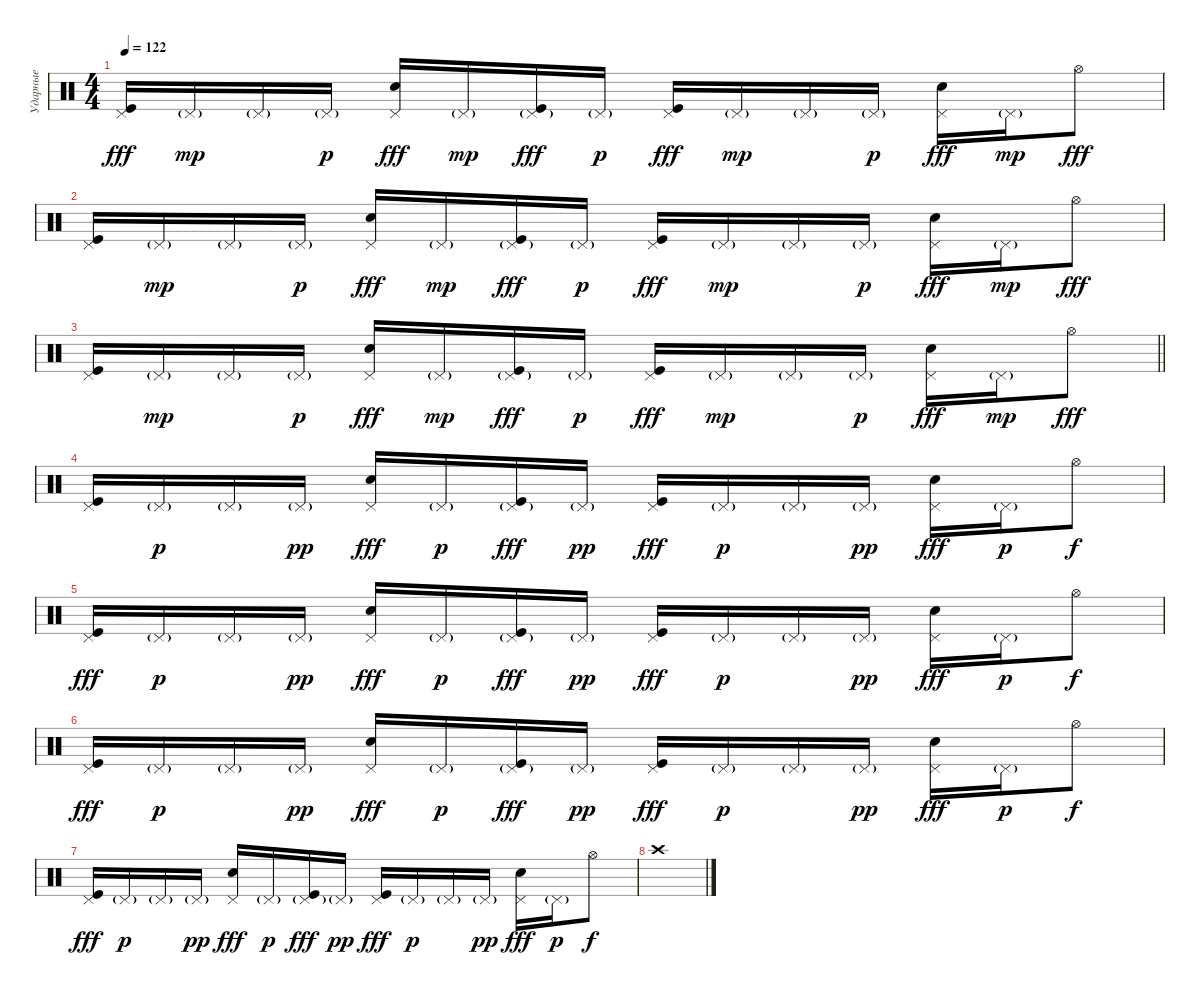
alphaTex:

\track ("Ударные" "Ударные") {instrument percussion}
\staff {score}
\articulation defaults
\ts (4 4)
\tempo 122
\clef neutral
\ks c
("Pedal Hi-Hat (hit)" "Kick (hit)").16{dy fff} "Pedal Hi-Hat (hit)"{g}.16{dy mp} "Pedal Hi-Hat (hit)"{g}.16 "Pedal Hi-Hat (hit)"{g}.16{dy p} ("Pedal Hi-Hat (hit)" "Electric Snare (hit)").16{dy fff} "Pedal Hi-Hat (hit)"{g}.16{dy mp} ("Pedal Hi-Hat (hit)"{g} "Kick (hit)").16{dy fff} "Pedal Hi-Hat (hit)"{g}.16{dy p} ("Pedal Hi-Hat (hit)" "Kick (hit)").16{dy fff} "Pedal Hi-Hat (hit)"{g}.16{dy mp} "Pedal Hi-Hat (hit)"{g}.16 "Pedal Hi-Hat (hit)"{g}.16{dy p} ("Pedal Hi-Hat (hit)" "Electric Snare (hit)").16{dy fff} "Pedal Hi-Hat (hit)"{g}.16{dy mp} "Hi-Hat (open)".8{dy fff} |
("Pedal Hi-Hat (hit)" "Kick (hit)").16 "Pedal Hi-Hat (hit)"{g}.16{dy mp} "Pedal Hi-Hat (hit)"{g}.16 "Pedal Hi-Hat (hit)"{g}.16{dy p} ("Pedal Hi-Hat (hit)" "Electric Snare (hit)").16{dy fff} "Pedal Hi-Hat (hit)"{g}.16{dy mp} ("Pedal Hi-Hat (hit)"{g} "Kick (hit)").16{dy fff} "Pedal Hi-Hat (hit)"{g}.16{dy p} ("Pedal Hi-Hat (hit)" "Kick (hit)").16{dy fff} "Pedal Hi-Hat (hit)"{g}.16{dy mp} "Pedal Hi-Hat (hit)"{g}.16 "Pedal Hi-Hat (hit)"{g}.16{dy p} ("Pedal Hi-Hat (hit)" "Electric Snare (hit)").16{dy fff} "Pedal Hi-Hat (hit)"{g}.16{dy mp} "Hi-Hat (open)".8{dy fff} |
\barLineRight lightlight
("Pedal Hi-Hat (hit)" "Kick (hit)").16 "Pedal Hi-Hat (hit)"{g}.16{dy mp} "Pedal Hi-Hat (hit)"{g}.16 "Pedal Hi-Hat (hit)"{g}.16{dy p} ("Pedal Hi-Hat (hit)" "Electric Snare (hit)").16{dy fff} "Pedal Hi-Hat (hit)"{g}.16{dy mp} ("Pedal Hi-Hat (hit)"{g} "Kick (hit)").16{dy fff} "Pedal Hi-Hat (hit)"{g}.16{dy p} ("Pedal Hi-Hat (hit)" "Kick (hit)").16{dy fff} "Pedal Hi-Hat (hit)"{g}.16{dy mp} "Pedal Hi-Hat (hit)"{g}.16 "Pedal Hi-Hat (hit)"{g}.16{dy p} ("Pedal Hi-Hat (hit)" "Electric Snare (hit)").16{dy fff} "Pedal Hi-Hat (hit)"{g}.16{dy mp} "Hi-Hat (open)".8{dy fff} |
("Pedal Hi-Hat (hit)" "Kick (hit)").16 "Pedal Hi-Hat (hit)"{g}.16{dy p} "Pedal Hi-Hat (hit)"{g}.16 "Pedal Hi-Hat (hit)"{g}.16{dy pp} ("Pedal Hi-Hat (hit)" "Electric Snare (hit)").16{dy fff} "Pedal Hi-Hat (hit)"{g}.16{dy p} ("Pedal Hi-Hat (hit)"{g} "Kick (hit)").16{dy fff} "Pedal Hi-Hat (hit)"{g}.16{dy pp} ("Pedal Hi-Hat (hit)" "Kick (hit)").16{dy fff} "Pedal Hi-Hat (hit)"{g}.16{dy p} "Pedal Hi-Hat (hit)"{g}.16 "Pedal Hi-Hat (hit)"{g}.16{dy pp} ("Pedal Hi-Hat (hit)" "Electric Snare (hit)").16{dy fff} "Pedal Hi-Hat (hit)"{g}.16{dy p} "Hi-Hat (open)".8{dy f} |
("Pedal Hi-Hat (hit)" "Kick (hit)").16{dy fff} "Pedal Hi-Hat (hit)"{g}.16{dy p} "Pedal Hi-Hat (hit)"{g}.16 "Pedal Hi-Hat (hit)"{g}.16{dy pp} ("Pedal Hi-Hat (hit)" "Electric Snare (hit)").16{dy fff} "Pedal Hi-Hat (hit)"{g}.16{dy p} ("Pedal Hi-Hat (hit)"{g} "Kick (hit)").16{dy fff} "Pedal Hi-Hat (hit)"{g}.16{dy pp} ("Pedal Hi-Hat (hit)" "Kick (hit)").16{dy fff} "Pedal Hi-Hat (hit)"{g}.16{dy p} "Pedal Hi-Hat (hit)"{g}.16 "Pedal Hi-Hat (hit)"{g}.16{dy pp} ("Pedal Hi-Hat (hit)" "Electric Snare (hit)").16{dy fff} "Pedal Hi-Hat (hit)"{g}.16{dy p} "Hi-Hat (open)".8{dy f} |
("Pedal Hi-Hat (hit)" "Kick (hit)").16{dy fff} "Pedal Hi-Hat (hit)"{g}.16{dy p} "Pedal Hi-Hat (hit)"{g}.16 "Pedal Hi-Hat (hit)"{g}.16{dy pp} ("Pedal Hi-Hat (hit)" "Electric Snare (hit)").16{dy fff} "Pedal Hi-Hat (hit)"{g}.16{dy p} ("Pedal Hi-Hat (hit)"{g} "Kick (hit)").16{dy fff} "Pedal Hi-Hat (hit)"{g}.16{dy pp} ("Pedal Hi-Hat (hit)" "Kick (hit)").16{dy fff} "Pedal Hi-Hat (hit)"{g}.16{dy p} "Pedal Hi-Hat (hit)"{g}.16 "Pedal Hi-Hat (hit)"{g}.16{dy pp} ("Pedal Hi-Hat (hit)" "Electric Snare (hit)").16{dy fff} "Pedal Hi-Hat (hit)"{g}.16{dy p} "Hi-Hat (open)".8{dy f} |
("Pedal Hi-Hat (hit)" "Kick (hit)").16{dy fff} "Pedal Hi-Hat (hit)"{g}.16{dy p} "Pedal Hi-Hat (hit)"{g}.16 "Pedal Hi-Hat (hit)"{g}.16{dy pp} ("Pedal Hi-Hat (hit)" "Electric Snare (hit)").16{dy fff} "Pedal Hi-Hat (hit)"{g}.16{dy p} ("Pedal Hi-Hat (hit)"{g} "Kick (hit)").16{dy fff} "Pedal Hi-Hat (hit)"{g}.16{dy pp} ("Pedal Hi-Hat (hit)" "Kick (hit)").16{dy fff} "Pedal Hi-Hat (hit)"{g}.16{dy p} "Pedal Hi-Hat (hit)"{g}.16 "Pedal Hi-Hat (hit)"{g}.16{dy pp} ("Pedal Hi-Hat (hit)" "Electric Snare (hit)").16{dy fff} "Pedal Hi-Hat (hit)"{g}.16{dy p} "Hi-Hat (open)".8{dy f} |
"Crash high (hit)".1
